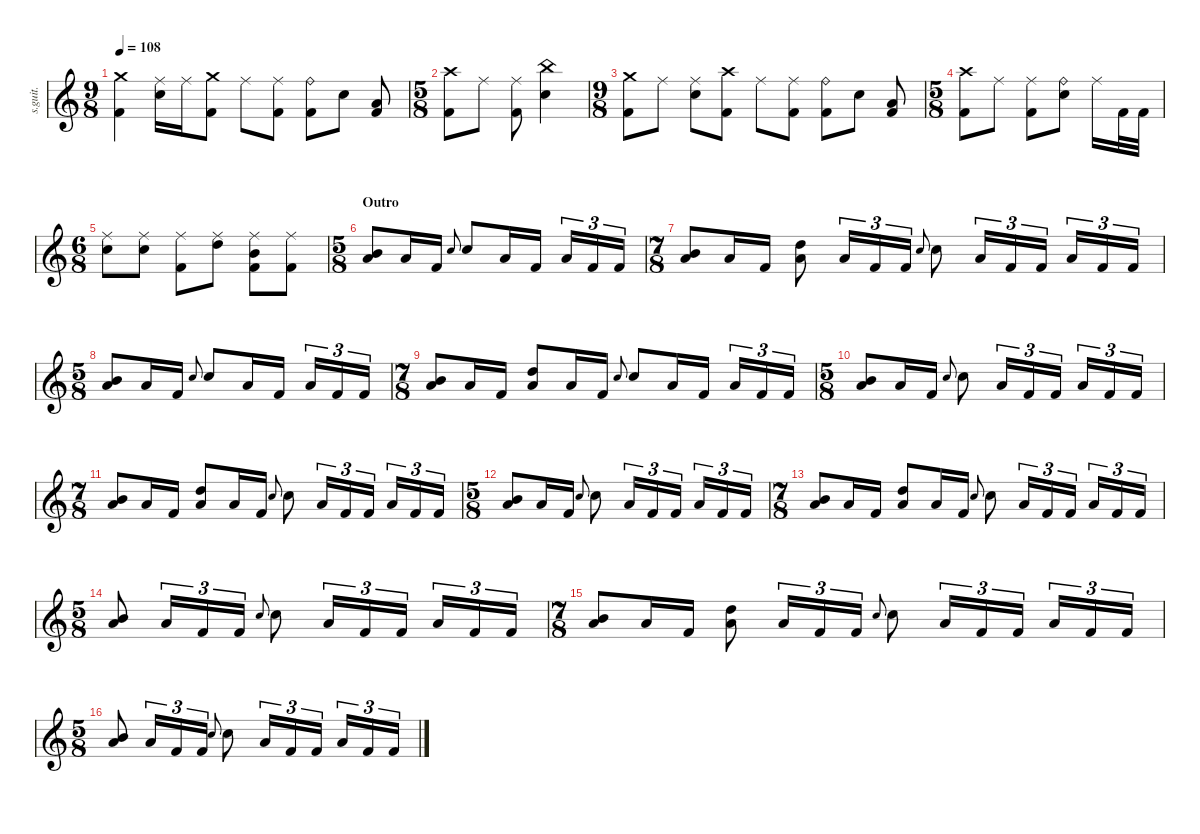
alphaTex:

\defaultSystemsLayout 4
\hideDynamics
\bracketExtendMode nobrackets
\track ("Danny Carey" "s.guit.") {instrument percussion}
\staff {score}
\articulation defaults
\ts (9 8)
\beaming (8 2 2 2 2)
\tempo 108
\clef g2
\ks c
("Crash medium (hit)" "Kick (hit) 2").4{lyrics (0 "") lyrics (1 "") lyrics (2 "") lyrics (3 "") lyrics (4 "") dy f} ("Ride (middle)" "Snare (hit) 2").16{lyrics (0 "") lyrics (1 "") lyrics (2 "") lyrics (3 "") lyrics (4 "")} "Ride (middle)".16{lyrics (0 "") lyrics (1 "") lyrics (2 "") lyrics (3 "") lyrics (4 "")} ("Crash medium (hit)" "Kick (hit) 2").8{lyrics (0 "") lyrics (1 "") lyrics (2 "") lyrics (3 "") lyrics (4 "")} "Ride (middle)".8{lyrics (0 "") lyrics (1 "") lyrics (2 "") lyrics (3 "") lyrics (4 "")} ("Ride (middle)" "Kick (hit) 2").8{lyrics (0 "") lyrics (1 "") lyrics (2 "") lyrics (3 "") lyrics (4 "")} ("Ride (bell)" "Kick (hit) 2").8{lyrics (0 "") lyrics (1 "") lyrics (2 "") lyrics (3 "") lyrics (4 "")} "Snare (hit) 2".8{lyrics (0 "") lyrics (1 "") lyrics (2 "") lyrics (3 "") lyrics (4 "")} ("Kick (hit) 2" "Low Floor Tom (hit)").8{lyrics (0 "") lyrics (1 "") lyrics (2 "") lyrics (3 "") lyrics (4 "")} |
\ts (5 8)
\beaming (8 2 2 2 2)
("Crash high (hit)" "Kick (hit) 2").8{lyrics (0 "") lyrics (1 "") lyrics (2 "") lyrics (3 "") lyrics (4 "")} "Ride (middle)".8{lyrics (0 "") lyrics (1 "") lyrics (2 "") lyrics (3 "") lyrics (4 "")} ("Ride (middle)" "Kick (hit) 2").8{lyrics (0 "") lyrics (1 "") lyrics (2 "") lyrics (3 "") lyrics (4 "")} ("Snare (hit) 2" "China (hit)").4{lyrics (0 "") lyrics (1 "") lyrics (2 "") lyrics (3 "") lyrics (4 "")} |
\ts (9 8)
\beaming (8 2 2 2 2)
("Crash medium (hit)" "Kick (hit) 2").8{lyrics (0 "") lyrics (1 "") lyrics (2 "") lyrics (3 "") lyrics (4 "")} "Ride (middle)".8{lyrics (0 "") lyrics (1 "") lyrics (2 "") lyrics (3 "") lyrics (4 "")} ("Ride (middle)" "Snare (hit) 2").8{lyrics (0 "") lyrics (1 "") lyrics (2 "") lyrics (3 "") lyrics (4 "")} ("Kick (hit) 2" "Crash high (hit)").8{lyrics (0 "") lyrics (1 "") lyrics (2 "") lyrics (3 "") lyrics (4 "")} "Ride (middle)".8{lyrics (0 "") lyrics (1 "") lyrics (2 "") lyrics (3 "") lyrics (4 "")} ("Ride (middle)" "Kick (hit) 2").8{lyrics (0 "") lyrics (1 "") lyrics (2 "") lyrics (3 "") lyrics (4 "")} ("Ride (bell)" "Kick (hit) 2").8{lyrics (0 "") lyrics (1 "") lyrics (2 "") lyrics (3 "") lyrics (4 "")} "Snare (hit) 2".8{lyrics (0 "") lyrics (1 "") lyrics (2 "") lyrics (3 "") lyrics (4 "")} ("Kick (hit) 2" "Low Floor Tom (hit)").8{lyrics (0 "") lyrics (1 "") lyrics (2 "") lyrics (3 "") lyrics (4 "")} |
\ts (5 8)
\beaming (8 2 2 2 2)
("Crash high (hit)" "Kick (hit) 2").8{lyrics (0 "") lyrics (1 "") lyrics (2 "") lyrics (3 "") lyrics (4 "")} "Ride (middle)".8{lyrics (0 "") lyrics (1 "") lyrics (2 "") lyrics (3 "") lyrics (4 "")} ("Ride (middle)" "Kick (hit) 2").8{lyrics (0 "") lyrics (1 "") lyrics (2 "") lyrics (3 "") lyrics (4 "")} ("Ride (bell)" "Snare (hit) 2").8{lyrics (0 "") lyrics (1 "") lyrics (2 "") lyrics (3 "") lyrics (4 "")} "Ride (middle)".16{lyrics (0 "") lyrics (1 "") lyrics (2 "") lyrics (3 "") lyrics (4 "")} "Kick (hit) 2".32{lyrics (0 "") lyrics (1 "") lyrics (2 "") lyrics (3 "") lyrics (4 "")} "Kick (hit) 2".32{lyrics (0 "") lyrics (1 "") lyrics (2 "") lyrics (3 "") lyrics (4 "")} |
\ts (6 8)
\beaming (8 2 2 2 2)
("Ride (middle)" "Snare (hit) 2").8{lyrics (0 "") lyrics (1 "") lyrics (2 "") lyrics (3 "") lyrics (4 "")} ("Ride (middle)" "Snare (hit) 2").8{lyrics (0 "") lyrics (1 "") lyrics (2 "") lyrics (3 "") lyrics (4 "")} ("Ride (middle)" "Kick (hit) 2").8{lyrics (0 "") lyrics (1 "") lyrics (2 "") lyrics (3 "") lyrics (4 "")} ("Ride (middle)" "High Tom (hit)").8{lyrics (0 "") lyrics (1 "") lyrics (2 "") lyrics (3 "") lyrics (4 "")} ("Ride (middle)" "Mid Tom (hit)" "Kick (hit) 2").8{lyrics (0 "") lyrics (1 "") lyrics (2 "") lyrics (3 "") lyrics (4 "")} ("Ride (middle)" "Kick (hit) 2").8{lyrics (0 "") lyrics (1 "") lyrics (2 "") lyrics (3 "") lyrics (4 "")} |
\ts (5 8)
\beaming (8 2 2 2 2)
\section ("" "Outro")
("Mid Tom (hit)" "Low Floor Tom (hit)").8{lyrics (0 "") lyrics (1 "") lyrics (2 "") lyrics (3 "") lyrics (4 "")} "Low Floor Tom (hit)".16{lyrics (0 "") lyrics (1 "") lyrics (2 "") lyrics (3 "") lyrics (4 "")} "Kick (hit) 2".16{lyrics (0 "") lyrics (1 "") lyrics (2 "") lyrics (3 "") lyrics (4 "")} "Snare (hit) 2".8{lyrics (0 "") lyrics (1 "") lyrics (2 "") lyrics (3 "") lyrics (4 "") gr onbeat} "Snare (hit) 2".8{lyrics (0 "") lyrics (1 "") lyrics (2 "") lyrics (3 "") lyrics (4 "")} "Low Floor Tom (hit)".16{lyrics (0 "") lyrics (1 "") lyrics (2 "") lyrics (3 "") lyrics (4 "")} "Kick (hit) 2".16{lyrics (0 "") lyrics (1 "") lyrics (2 "") lyrics (3 "") lyrics (4 "")} "Low Floor Tom (hit)".16{tu (3 2) lyrics (0 "") lyrics (1 "") lyrics (2 "") lyrics (3 "") lyrics (4 "")} "Kick (hit) 2".16{tu (3 2) lyrics (0 "") lyrics (1 "") lyrics (2 "") lyrics (3 "") lyrics (4 "")} "Kick (hit) 2".16{tu (3 2) lyrics (0 "") lyrics (1 "") lyrics (2 "") lyrics (3 "") lyrics (4 "")} |
\ts (7 8)
\beaming (8 2 2 2 2)
("Mid Tom (hit)" "Low Floor Tom (hit)").8{lyrics (0 "") lyrics (1 "") lyrics (2 "") lyrics (3 "") lyrics (4 "")} "Low Floor Tom (hit)".16{lyrics (0 "") lyrics (1 "") lyrics (2 "") lyrics (3 "") lyrics (4 "")} "Kick (hit) 2".16{lyrics (0 "") lyrics (1 "") lyrics (2 "") lyrics (3 "") lyrics (4 "")} ("Low Floor Tom (hit)" "High Tom (hit)").8{lyrics (0 "") lyrics (1 "") lyrics (2 "") lyrics (3 "") lyrics (4 "")} "Low Tom (hit)".16{tu (3 2) lyrics (0 "") lyrics (1 "") lyrics (2 "") lyrics (3 "") lyrics (4 "")} "Kick (hit) 2".16{tu (3 2) lyrics (0 "") lyrics (1 "") lyrics (2 "") lyrics (3 "") lyrics (4 "")} "Kick (hit) 2".16{tu (3 2) lyrics (0 "") lyrics (1 "") lyrics (2 "") lyrics (3 "") lyrics (4 "")} "Snare (hit) 2".8{lyrics (0 "") lyrics (1 "") lyrics (2 "") lyrics (3 "") lyrics (4 "") gr onbeat} "Snare (hit) 2".8{lyrics (0 "") lyrics (1 "") lyrics (2 "") lyrics (3 "") lyrics (4 "")} "Low Floor Tom (hit)".16{tu (3 2) lyrics (0 "") lyrics (1 "") lyrics (2 "") lyrics (3 "") lyrics (4 "")} "Kick (hit) 2".16{tu (3 2) lyrics (0 "") lyrics (1 "") lyrics (2 "") lyrics (3 "") lyrics (4 "")} "Kick (hit) 2".16{tu (3 2) lyrics (0 "") lyrics (1 "") lyrics (2 "") lyrics (3 "") lyrics (4 "")} "Low Floor Tom (hit)".16{tu (3 2) lyrics (0 "") lyrics (1 "") lyrics (2 "") lyrics (3 "") lyrics (4 "")} "Kick (hit) 2".16{tu (3 2) lyrics (0 "") lyrics (1 "") lyrics (2 "") lyrics (3 "") lyrics (4 "")} "Kick (hit) 2".16{tu (3 2) lyrics (0 "") lyrics (1 "") lyrics (2 "") lyrics (3 "") lyrics (4 "")} |
\ts (5 8)
\beaming (8 2 2 2 2)
("Mid Tom (hit)" "Low Floor Tom (hit)").8{lyrics (0 "") lyrics (1 "") lyrics (2 "") lyrics (3 "") lyrics (4 "")} "Low Floor Tom (hit)".16{lyrics (0 "") lyrics (1 "") lyrics (2 "") lyrics (3 "") lyrics (4 "")} "Kick (hit) 2".16{lyrics (0 "") lyrics (1 "") lyrics (2 "") lyrics (3 "") lyrics (4 "")} "Snare (hit) 2".8{lyrics (0 "") lyrics (1 "") lyrics (2 "") lyrics (3 "") lyrics (4 "") gr onbeat} "Snare (hit) 2".8{lyrics (0 "") lyrics (1 "") lyrics (2 "") lyrics (3 "") lyrics (4 "")} "Low Floor Tom (hit)".16{lyrics (0 "") lyrics (1 "") lyrics (2 "") lyrics (3 "") lyrics (4 "")} "Kick (hit) 2".16{lyrics (0 "") lyrics (1 "") lyrics (2 "") lyrics (3 "") lyrics (4 "")} "Low Floor Tom (hit)".16{tu (3 2) lyrics (0 "") lyrics (1 "") lyrics (2 "") lyrics (3 "") lyrics (4 "")} "Kick (hit) 2".16{tu (3 2) lyrics (0 "") lyrics (1 "") lyrics (2 "") lyrics (3 "") lyrics (4 "")} "Kick (hit) 2".16{tu (3 2) lyrics (0 "") lyrics (1 "") lyrics (2 "") lyrics (3 "") lyrics (4 "")} |
\ts (7 8)
\beaming (8 2 2 2 2)
("Mid Tom (hit)" "Low Floor Tom (hit)").8{lyrics (0 "") lyrics (1 "") lyrics (2 "") lyrics (3 "") lyrics (4 "")} "Low Floor Tom (hit)".16{lyrics (0 "") lyrics (1 "") lyrics (2 "") lyrics (3 "") lyrics (4 "")} "Kick (hit) 2".16{lyrics (0 "") lyrics (1 "") lyrics (2 "") lyrics (3 "") lyrics (4 "")} ("Low Floor Tom (hit)" "High Tom (hit)").8{lyrics (0 "") lyrics (1 "") lyrics (2 "") lyrics (3 "") lyrics (4 "")} "Low Floor Tom (hit)".16{lyrics (0 "") lyrics (1 "") lyrics (2 "") lyrics (3 "") lyrics (4 "")} "Kick (hit) 2".16{lyrics (0 "") lyrics (1 "") lyrics (2 "") lyrics (3 "") lyrics (4 "")} "Snare (hit) 2".8{lyrics (0 "") lyrics (1 "") lyrics (2 "") lyrics (3 "") lyrics (4 "") gr onbeat} "Snare (hit) 2".8{lyrics (0 "") lyrics (1 "") lyrics (2 "") lyrics (3 "") lyrics (4 "")} "Low Floor Tom (hit)".16{lyrics (0 "") lyrics (1 "") lyrics (2 "") lyrics (3 "") lyrics (4 "")} "Kick (hit) 2".16{lyrics (0 "") lyrics (1 "") lyrics (2 "") lyrics (3 "") lyrics (4 "")} "Low Floor Tom (hit)".16{tu (3 2) lyrics (0 "") lyrics (1 "") lyrics (2 "") lyrics (3 "") lyrics (4 "")} "Kick (hit) 2".16{tu (3 2) lyrics (0 "") lyrics (1 "") lyrics (2 "") lyrics (3 "") lyrics (4 "")} "Kick (hit) 2".16{tu (3 2) lyrics (0 "") lyrics (1 "") lyrics (2 "") lyrics (3 "") lyrics (4 "")} |
\ts (5 8)
\beaming (8 2 2 2 2)
("Mid Tom (hit)" "Low Floor Tom (hit)").8{lyrics (0 "") lyrics (1 "") lyrics (2 "") lyrics (3 "") lyrics (4 "")} "Low Floor Tom (hit)".16{lyrics (0 "") lyrics (1 "") lyrics (2 "") lyrics (3 "") lyrics (4 "")} "Kick (hit) 2".16{lyrics (0 "") lyrics (1 "") lyrics (2 "") lyrics (3 "") lyrics (4 "")} "Snare (hit) 2".8{lyrics (0 "") lyrics (1 "") lyrics (2 "") lyrics (3 "") lyrics (4 "") gr onbeat} "Snare (hit) 2".8{lyrics (0 "") lyrics (1 "") lyrics (2 "") lyrics (3 "") lyrics (4 "")} "Low Floor Tom (hit)".16{tu (3 2) lyrics (0 "") lyrics (1 "") lyrics (2 "") lyrics (3 "") lyrics (4 "")} "Kick (hit) 2".16{tu (3 2) lyrics (0 "") lyrics (1 "") lyrics (2 "") lyrics (3 "") lyrics (4 "")} "Kick (hit) 2".16{tu (3 2) lyrics (0 "") lyrics (1 "") lyrics (2 "") lyrics (3 "") lyrics (4 "")} "Low Floor Tom (hit)".16{tu (3 2) lyrics (0 "") lyrics (1 "") lyrics (2 "") lyrics (3 "") lyrics (4 "")} "Kick (hit) 2".16{tu (3 2) lyrics (0 "") lyrics (1 "") lyrics (2 "") lyrics (3 "") lyrics (4 "")} "Kick (hit) 2".16{tu (3 2) lyrics (0 "") lyrics (1 "") lyrics (2 "") lyrics (3 "") lyrics (4 "")} |
\ts (7 8)
\beaming (8 2 2 2 2)
("Mid Tom (hit)" "Low Floor Tom (hit)").8{lyrics (0 "") lyrics (1 "") lyrics (2 "") lyrics (3 "") lyrics (4 "")} "Low Floor Tom (hit)".16{lyrics (0 "") lyrics (1 "") lyrics (2 "") lyrics (3 "") lyrics (4 "")} "Kick (hit) 2".16{lyrics (0 "") lyrics (1 "") lyrics (2 "") lyrics (3 "") lyrics (4 "")} ("Low Floor Tom (hit)" "High Tom (hit)").8{lyrics (0 "") lyrics (1 "") lyrics (2 "") lyrics (3 "") lyrics (4 "")} "Low Floor Tom (hit)".16{lyrics (0 "") lyrics (1 "") lyrics (2 "") lyrics (3 "") lyrics (4 "")} "Kick (hit) 2".16{lyrics (0 "") lyrics (1 "") lyrics (2 "") lyrics (3 "") lyrics (4 "")} "Snare (hit) 2".8{lyrics (0 "") lyrics (1 "") lyrics (2 "") lyrics (3 "") lyrics (4 "") gr onbeat} "Snare (hit) 2".8{lyrics (0 "") lyrics (1 "") lyrics (2 "") lyrics (3 "") lyrics (4 "")} "Low Floor Tom (hit)".16{tu (3 2) lyrics (0 "") lyrics (1 "") lyrics (2 "") lyrics (3 "") lyrics (4 "")} "Kick (hit) 2".16{tu (3 2) lyrics (0 "") lyrics (1 "") lyrics (2 "") lyrics (3 "") lyrics (4 "")} "Kick (hit) 2".16{tu (3 2) lyrics (0 "") lyrics (1 "") lyrics (2 "") lyrics (3 "") lyrics (4 "")} "Low Floor Tom (hit)".16{tu (3 2) lyrics (0 "") lyrics (1 "") lyrics (2 "") lyrics (3 "") lyrics (4 "")} "Kick (hit) 2".16{tu (3 2) lyrics (0 "") lyrics (1 "") lyrics (2 "") lyrics (3 "") lyrics (4 "")} "Kick (hit) 2".16{tu (3 2) lyrics (0 "") lyrics (1 "") lyrics (2 "") lyrics (3 "") lyrics (4 "")} |
\ts (5 8)
\beaming (8 2 2 2 2)
("Mid Tom (hit)" "Low Floor Tom (hit)").8{lyrics (0 "") lyrics (1 "") lyrics (2 "") lyrics (3 "") lyrics (4 "")} "Low Floor Tom (hit)".16{lyrics (0 "") lyrics (1 "") lyrics (2 "") lyrics (3 "") lyrics (4 "")} "Kick (hit) 2".16{lyrics (0 "") lyrics (1 "") lyrics (2 "") lyrics (3 "") lyrics (4 "")} "Snare (hit) 2".8{lyrics (0 "") lyrics (1 "") lyrics (2 "") lyrics (3 "") lyrics (4 "") gr onbeat} "Snare (hit) 2".8{lyrics (0 "") lyrics (1 "") lyrics (2 "") lyrics (3 "") lyrics (4 "")} "Low Floor Tom (hit)".16{tu (3 2) lyrics (0 "") lyrics (1 "") lyrics (2 "") lyrics (3 "") lyrics (4 "")} "Kick (hit) 2".16{tu (3 2) lyrics (0 "") lyrics (1 "") lyrics (2 "") lyrics (3 "") lyrics (4 "")} "Kick (hit) 2".16{tu (3 2) lyrics (0 "") lyrics (1 "") lyrics (2 "") lyrics (3 "") lyrics (4 "")} "Low Floor Tom (hit)".16{tu (3 2) lyrics (0 "") lyrics (1 "") lyrics (2 "") lyrics (3 "") lyrics (4 "")} "Kick (hit) 2".16{tu (3 2) lyrics (0 "") lyrics (1 "") lyrics (2 "") lyrics (3 "") lyrics (4 "")} "Kick (hit) 2".16{tu (3 2) lyrics (0 "") lyrics (1 "") lyrics (2 "") lyrics (3 "") lyrics (4 "")} |
\ts (7 8)
\beaming (8 2 2 2 2)
("Mid Tom (hit)" "Low Floor Tom (hit)").8{lyrics (0 "") lyrics (1 "") lyrics (2 "") lyrics (3 "") lyrics (4 "")} "Low Floor Tom (hit)".16{lyrics (0 "") lyrics (1 "") lyrics (2 "") lyrics (3 "") lyrics (4 "")} "Kick (hit) 2".16{lyrics (0 "") lyrics (1 "") lyrics (2 "") lyrics (3 "") lyrics (4 "")} ("Low Floor Tom (hit)" "High Tom (hit)").8{lyrics (0 "") lyrics (1 "") lyrics (2 "") lyrics (3 "") lyrics (4 "")} "Low Floor Tom (hit)".16{lyrics (0 "") lyrics (1 "") lyrics (2 "") lyrics (3 "") lyrics (4 "")} "Kick (hit) 2".16{lyrics (0 "") lyrics (1 "") lyrics (2 "") lyrics (3 "") lyrics (4 "")} "Snare (hit) 2".8{lyrics (0 "") lyrics (1 "") lyrics (2 "") lyrics (3 "") lyrics (4 "") gr onbeat} "Snare (hit) 2".8{lyrics (0 "") lyrics (1 "") lyrics (2 "") lyrics (3 "") lyrics (4 "")} "Low Floor Tom (hit)".16{tu (3 2) lyrics (0 "") lyrics (1 "") lyrics (2 "") lyrics (3 "") lyrics (4 "")} "Kick (hit) 2".16{tu (3 2) lyrics (0 "") lyrics (1 "") lyrics (2 "") lyrics (3 "") lyrics (4 "")} "Kick (hit) 2".16{tu (3 2) lyrics (0 "") lyrics (1 "") lyrics (2 "") lyrics (3 "") lyrics (4 "")} "Low Floor Tom (hit)".16{tu (3 2) lyrics (0 "") lyrics (1 "") lyrics (2 "") lyrics (3 "") lyrics (4 "")} "Kick (hit) 2".16{tu (3 2) lyrics (0 "") lyrics (1 "") lyrics (2 "") lyrics (3 "") lyrics (4 "")} "Kick (hit) 2".16{tu (3 2) lyrics (0 "") lyrics (1 "") lyrics (2 "") lyrics (3 "") lyrics (4 "")} |
\ts (5 8)
\beaming (8 2 2 2 2)
("Mid Tom (hit)" "Low Floor Tom (hit)").8{lyrics (0 "") lyrics (1 "") lyrics (2 "") lyrics (3 "") lyrics (4 "")} "Low Floor Tom (hit)".16{tu (3 2) lyrics (0 "") lyrics (1 "") lyrics (2 "") lyrics (3 "") lyrics (4 "")} "Kick (hit) 2".16{tu (3 2) lyrics (0 "") lyrics (1 "") lyrics (2 "") lyrics (3 "") lyrics (4 "")} "Kick (hit) 2".16{tu (3 2) lyrics (0 "") lyrics (1 "") lyrics (2 "") lyrics (3 "") lyrics (4 "")} "Snare (hit) 2".8{lyrics (0 "") lyrics (1 "") lyrics (2 "") lyrics (3 "") lyrics (4 "") gr onbeat} "Snare (hit) 2".8{lyrics (0 "") lyrics (1 "") lyrics (2 "") lyrics (3 "") lyrics (4 "")} "Low Floor Tom (hit)".16{tu (3 2) lyrics (0 "") lyrics (1 "") lyrics (2 "") lyrics (3 "") lyrics (4 "")} "Kick (hit) 2".16{tu (3 2) lyrics (0 "") lyrics (1 "") lyrics (2 "") lyrics (3 "") lyrics (4 "")} "Kick (hit) 2".16{tu (3 2) lyrics (0 "") lyrics (1 "") lyrics (2 "") lyrics (3 "") lyrics (4 "")} "Low Floor Tom (hit)".16{tu (3 2) lyrics (0 "") lyrics (1 "") lyrics (2 "") lyrics (3 "") lyrics (4 "")} "Kick (hit) 2".16{tu (3 2) lyrics (0 "") lyrics (1 "") lyrics (2 "") lyrics (3 "") lyrics (4 "")} "Kick (hit) 2".16{tu (3 2) lyrics (0 "") lyrics (1 "") lyrics (2 "") lyrics (3 "") lyrics (4 "")} |
\ts (7 8)
\beaming (8 2 2 2 2)
("Mid Tom (hit)" "Low Floor Tom (hit)").8{lyrics (0 "") lyrics (1 "") lyrics (2 "") lyrics (3 "") lyrics (4 "")} "Low Floor Tom (hit)".16{lyrics (0 "") lyrics (1 "") lyrics (2 "") lyrics (3 "") lyrics (4 "")} "Kick (hit) 2".16{lyrics (0 "") lyrics (1 "") lyrics (2 "") lyrics (3 "") lyrics (4 "")} ("Low Floor Tom (hit)" "High Tom (hit)").8{lyrics (0 "") lyrics (1 "") lyrics (2 "") lyrics (3 "") lyrics (4 "")} "Low Floor Tom (hit)".16{tu (3 2) lyrics (0 "") lyrics (1 "") lyrics (2 "") lyrics (3 "") lyrics (4 "")} "Kick (hit) 2".16{tu (3 2) lyrics (0 "") lyrics (1 "") lyrics (2 "") lyrics (3 "") lyrics (4 "")} "Kick (hit) 2".16{tu (3 2) lyrics (0 "") lyrics (1 "") lyrics (2 "") lyrics (3 "") lyrics (4 "")} "Snare (hit) 2".8{lyrics (0 "") lyrics (1 "") lyrics (2 "") lyrics (3 "") lyrics (4 "") gr onbeat} "Snare (hit) 2".8{lyrics (0 "") lyrics (1 "") lyrics (2 "") lyrics (3 "") lyrics (4 "")} "Low Floor Tom (hit)".16{tu (3 2) lyrics (0 "") lyrics (1 "") lyrics (2 "") lyrics (3 "") lyrics (4 "")} "Kick (hit) 2".16{tu (3 2) lyrics (0 "") lyrics (1 "") lyrics (2 "") lyrics (3 "") lyrics (4 "")} "Kick (hit) 2".16{tu (3 2) lyrics (0 "") lyrics (1 "") lyrics (2 "") lyrics (3 "") lyrics (4 "")} "Low Floor Tom (hit)".16{tu (3 2) lyrics (0 "") lyrics (1 "") lyrics (2 "") lyrics (3 "") lyrics (4 "")} "Kick (hit) 2".16{tu (3 2) lyrics (0 "") lyrics (1 "") lyrics (2 "") lyrics (3 "") lyrics (4 "")} "Kick (hit) 2".16{tu (3 2) lyrics (0 "") lyrics (1 "") lyrics (2 "") lyrics (3 "") lyrics (4 "")} |
\ts (5 8)
\beaming (8 2 2 2 2)
("Mid Tom (hit)" "Low Floor Tom (hit)").8{lyrics (0 "") lyrics (1 "") lyrics (2 "") lyrics (3 "") lyrics (4 "")} "Low Floor Tom (hit)".16{tu (3 2) lyrics (0 "") lyrics (1 "") lyrics (2 "") lyrics (3 "") lyrics (4 "")} "Kick (hit) 2".16{tu (3 2) lyrics (0 "") lyrics (1 "") lyrics (2 "") lyrics (3 "") lyrics (4 "")} "Kick (hit) 2".16{tu (3 2) lyrics (0 "") lyrics (1 "") lyrics (2 "") lyrics (3 "") lyrics (4 "")} "Snare (hit) 2".8{lyrics (0 "") lyrics (1 "") lyrics (2 "") lyrics (3 "") lyrics (4 "") gr onbeat} "Snare (hit) 2".8{lyrics (0 "") lyrics (1 "") lyrics (2 "") lyrics (3 "") lyrics (4 "")} "Low Floor Tom (hit)".16{tu (3 2) lyrics (0 "") lyrics (1 "") lyrics (2 "") lyrics (3 "") lyrics (4 "")} "Kick (hit) 2".16{tu (3 2) lyrics (0 "") lyrics (1 "") lyrics (2 "") lyrics (3 "") lyrics (4 "")} "Kick (hit) 2".16{tu (3 2) lyrics (0 "") lyrics (1 "") lyrics (2 "") lyrics (3 "") lyrics (4 "")} "Low Floor Tom (hit)".16{tu (3 2) lyrics (0 "") lyrics (1 "") lyrics (2 "") lyrics (3 "") lyrics (4 "")} "Kick (hit) 2".16{tu (3 2) lyrics (0 "") lyrics (1 "") lyrics (2 "") lyrics (3 "") lyrics (4 "")} "Kick (hit) 2".16{tu (3 2) lyrics (0 "") lyrics (1 "") lyrics (2 "") lyrics (3 "") lyrics (4 "")}
